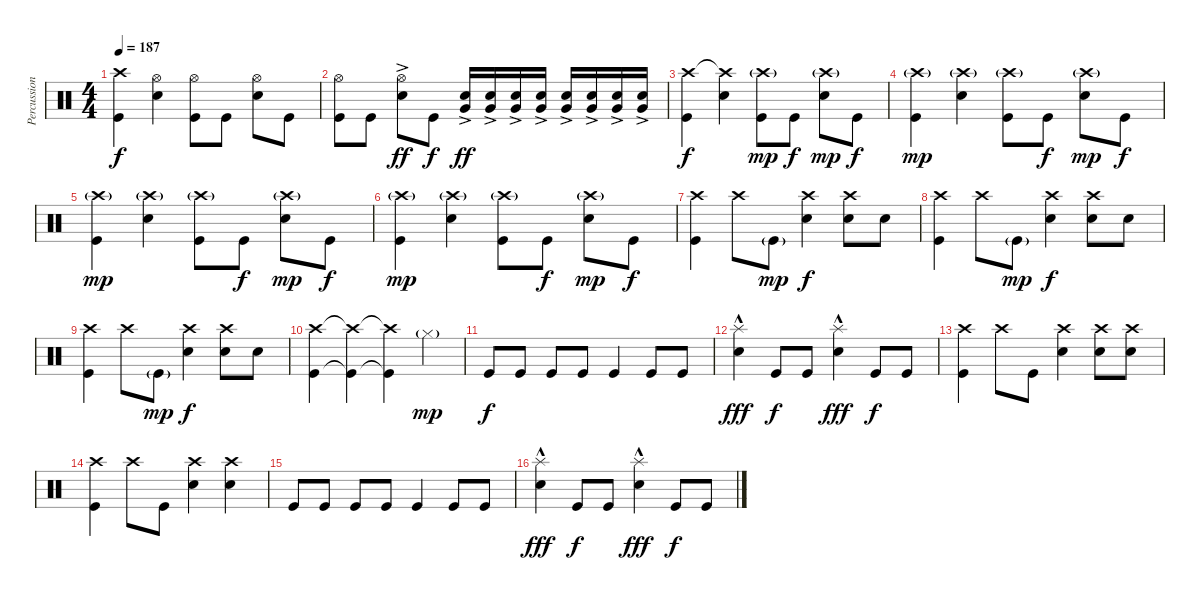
\track ("Percussions" "Percussion") {instrument percussion}
\staff {score}
\articulation defaults
\ts (4 4)
\tempo 187
\clef neutral
\ks c
("Kick (hit)" "Crash high (hit)").4{dy f} ("Electric Snare (hit)" "Hi-Hat (open)").4 ("Kick (hit)" "Hi-Hat (open)").8 "Kick (hit)".8 ("Electric Snare (hit)" "Hi-Hat (open)").8 "Kick (hit)".8 |
("Kick (hit)" "Hi-Hat (open)").8 "Kick (hit)".8 ("Electric Snare (hit)"{ac} "Hi-Hat (open)").8{dy ff} "Kick (hit)".8{dy f} ("Very Low Tom (hit)"{ac} "Electric Snare (hit)").16{dy ff} ("Very Low Tom (hit)"{ac} "Electric Snare (hit)").16 ("Very Low Tom (hit)"{ac} "Electric Snare (hit)").16 ("Very Low Tom (hit)"{ac} "Electric Snare (hit)").16 ("Very Low Tom (hit)"{ac} "Electric Snare (hit)").16 ("Very Low Tom (hit)"{ac} "Electric Snare (hit)").16 ("Very Low Tom (hit)"{ac} "Electric Snare (hit)").16 ("Very Low Tom (hit)"{ac} "Electric Snare (hit)").16 |
("Kick (hit)" "Crash high (hit)").4{dy f} ("Electric Snare (hit)" "Crash high (hit)"{t}).4 ("Kick (hit)" "Crash high (hit)"{g}).8{dy mp} "Kick (hit)".8{dy f} ("Electric Snare (hit)" "Crash high (hit)"{g}).8{dy mp} "Kick (hit)".8{dy f} |
("Kick (hit)" "Crash high (hit)"{g}).4{dy mp} ("Electric Snare (hit)" "Crash high (hit)"{g}).4 ("Kick (hit)" "Crash high (hit)"{g}).8 "Kick (hit)".8{dy f} ("Electric Snare (hit)" "Crash high (hit)"{g}).8{dy mp} "Kick (hit)".8{dy f} |
("Kick (hit)" "Crash high (hit)"{g}).4{dy mp} ("Electric Snare (hit)" "Crash high (hit)"{g}).4 ("Kick (hit)" "Crash high (hit)"{g}).8 "Kick (hit)".8{dy f} ("Electric Snare (hit)" "Crash high (hit)"{g}).8{dy mp} "Kick (hit)".8{dy f} |
("Kick (hit)" "Crash high (hit)"{g}).4{dy mp} ("Electric Snare (hit)" "Crash high (hit)"{g}).4 ("Kick (hit)" "Crash high (hit)"{g}).8 "Kick (hit)".8{dy f} ("Electric Snare (hit)" "Crash high (hit)"{g}).8{dy mp} "Kick (hit)".8{dy f} |
("Kick (hit)" "Crash high (hit)").4 "Crash high (hit)".8 "Kick (hit)"{g}.8{dy mp} ("Electric Snare (hit)" "Crash high (hit)").4{dy f} ("Electric Snare (hit)" "Crash high (hit)").8 "Electric Snare (hit)".8 |
("Kick (hit)" "Crash high (hit)").4 "Crash high (hit)".8 "Kick (hit)"{g}.8{dy mp} ("Electric Snare (hit)" "Crash high (hit)").4{dy f} ("Electric Snare (hit)" "Crash high (hit)").8 "Electric Snare (hit)".8 |
("Kick (hit)" "Crash high (hit)").4 "Crash high (hit)".8 "Kick (hit)"{g}.8{dy mp} ("Electric Snare (hit)" "Crash high (hit)").4{dy f} ("Electric Snare (hit)" "Crash high (hit)").8 "Electric Snare (hit)".8 |
("Kick (hit)" "Crash high (hit)").4 ("Kick (hit)"{t} "Crash high (hit)"{t}).4 ("Kick (hit)"{t} "Crash high (hit)"{t}).4 "Hi-Hat (closed)"{g}.4{dy mp} |
"Kick (hit)".8{dy f} "Kick (hit)".8 "Kick (hit)".8 "Kick (hit)".8 "Kick (hit)".4 "Kick (hit)".8 "Kick (hit)".8 |
("Electric Snare (hit)"{hac} "Splash (hit)"{hac}).4{dy fff} "Kick (hit)".8{dy f} "Kick (hit)".8 ("Electric Snare (hit)"{hac} "Splash (hit)"{hac}).4{dy fff} "Kick (hit)".8{dy f} "Kick (hit)".8 |
("Crash high (hit)" "Kick (hit)").4 "Crash high (hit)".8 "Kick (hit)".8 ("Electric Snare (hit)" "Crash high (hit)").4 ("Crash high (hit)" "Electric Snare (hit)").8 ("Electric Snare (hit)" "Crash high (hit)").8 |
("Crash high (hit)" "Kick (hit)").4 "Crash high (hit)".8 "Kick (hit)".8 ("Electric Snare (hit)" "Crash high (hit)").4 ("Electric Snare (hit)" "Crash high (hit)").4 |
"Kick (hit)".8 "Kick (hit)".8 "Kick (hit)".8 "Kick (hit)".8 "Kick (hit)".4 "Kick (hit)".8 "Kick (hit)".8 |
("Electric Snare (hit)"{hac} "Splash (hit)"{hac}).4{dy fff} "Kick (hit)".8{dy f} "Kick (hit)".8 ("Electric Snare (hit)"{hac} "Splash (hit)"{hac}).4{dy fff} "Kick (hit)".8{dy f} "Kick (hit)".8
